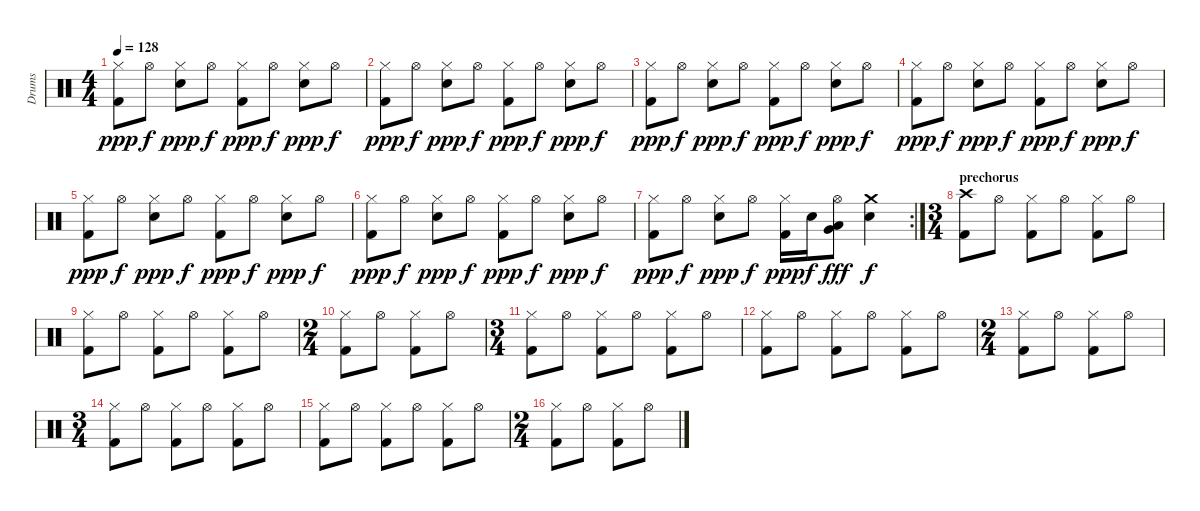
\track ("Drums" "Drums") {instrument percussion}
\staff {score}
\articulation defaults
\ts (4 4)
\tempo 128
\clef neutral
\ks c
("Hi-Hat (closed)" "Kick (hit) 2").8{dy ppp} "Hi-Hat (open)".8{dy f} ("Hi-Hat (closed)" "Snare (hit) 2").8{dy ppp} "Hi-Hat (open)".8{dy f} ("Hi-Hat (closed)" "Kick (hit) 2").8{dy ppp} "Hi-Hat (open)".8{dy f} ("Hi-Hat (closed)" "Snare (hit) 2").8{dy ppp} "Hi-Hat (open)".8{dy f} |
("Hi-Hat (closed)" "Kick (hit) 2").8{dy ppp} "Hi-Hat (open)".8{dy f} ("Hi-Hat (closed)" "Snare (hit) 2").8{dy ppp} "Hi-Hat (open)".8{dy f} ("Hi-Hat (closed)" "Kick (hit) 2").8{dy ppp} "Hi-Hat (open)".8{dy f} ("Hi-Hat (closed)" "Snare (hit) 2").8{dy ppp} "Hi-Hat (open)".8{dy f} |
("Hi-Hat (closed)" "Kick (hit) 2").8{dy ppp} "Hi-Hat (open)".8{dy f} ("Hi-Hat (closed)" "Snare (hit) 2").8{dy ppp} "Hi-Hat (open)".8{dy f} ("Hi-Hat (closed)" "Kick (hit) 2").8{dy ppp} "Hi-Hat (open)".8{dy f} ("Hi-Hat (closed)" "Snare (hit) 2").8{dy ppp} "Hi-Hat (open)".8{dy f} |
("Hi-Hat (closed)" "Kick (hit) 2").8{dy ppp} "Hi-Hat (open)".8{dy f} ("Hi-Hat (closed)" "Snare (hit) 2").8{dy ppp} "Hi-Hat (open)".8{dy f} ("Hi-Hat (closed)" "Kick (hit) 2").8{dy ppp} "Hi-Hat (open)".8{dy f} ("Hi-Hat (closed)" "Snare (hit) 2").8{dy ppp} "Hi-Hat (open)".8{dy f} |
("Hi-Hat (closed)" "Kick (hit) 2").8{dy ppp} "Hi-Hat (open)".8{dy f} ("Hi-Hat (closed)" "Snare (hit) 2").8{dy ppp} "Hi-Hat (open)".8{dy f} ("Hi-Hat (closed)" "Kick (hit) 2").8{dy ppp} "Hi-Hat (open)".8{dy f} ("Hi-Hat (closed)" "Snare (hit) 2").8{dy ppp} "Hi-Hat (open)".8{dy f} |
("Hi-Hat (closed)" "Kick (hit) 2").8{dy ppp} "Hi-Hat (open)".8{dy f} ("Hi-Hat (closed)" "Snare (hit) 2").8{dy ppp} "Hi-Hat (open)".8{dy f} ("Hi-Hat (closed)" "Kick (hit) 2").8{dy ppp} "Hi-Hat (open)".8{dy f} ("Hi-Hat (closed)" "Snare (hit) 2").8{dy ppp} "Hi-Hat (open)".8{dy f} |
\rc 2
("Hi-Hat (closed)" "Kick (hit) 2").8{dy ppp} "Hi-Hat (open)".8{dy f} ("Hi-Hat (closed)" "Snare (hit) 2").8{dy ppp} "Hi-Hat (open)".8{dy f} ("Hi-Hat (closed)" "Kick (hit) 2").16{dy ppp} "Snare (hit) 2".16{dy f} ("Hi-Hat (open)" "Low Tom (hit)" "Very Low Tom (hit)").8{dy fff} ("Crash medium (hit)" "Snare (hit) 2").4{dy f} |
\ts (3 4)
\section ("" "prechorus")
("Crash high (hit)" "Kick (hit) 2").8 "Hi-Hat (open)".8 ("Hi-Hat (closed)" "Kick (hit) 2").8 "Hi-Hat (open)".8 ("Hi-Hat (closed)" "Kick (hit) 2").8 "Hi-Hat (open)".8 |
("Hi-Hat (closed)" "Kick (hit) 2").8 "Hi-Hat (open)".8 ("Hi-Hat (closed)" "Kick (hit) 2").8 "Hi-Hat (open)".8 ("Hi-Hat (closed)" "Kick (hit) 2").8 "Hi-Hat (open)".8 |
\ts (2 4)
("Hi-Hat (closed)" "Kick (hit) 2").8 "Hi-Hat (open)".8 ("Hi-Hat (closed)" "Kick (hit) 2").8 "Hi-Hat (open)".8 |
\ts (3 4)
("Hi-Hat (closed)" "Kick (hit) 2").8 "Hi-Hat (open)".8 ("Hi-Hat (closed)" "Kick (hit) 2").8 "Hi-Hat (open)".8 ("Hi-Hat (closed)" "Kick (hit) 2").8 "Hi-Hat (open)".8 |
("Hi-Hat (closed)" "Kick (hit) 2").8 "Hi-Hat (open)".8 ("Hi-Hat (closed)" "Kick (hit) 2").8 "Hi-Hat (open)".8 ("Hi-Hat (closed)" "Kick (hit) 2").8 "Hi-Hat (open)".8 |
\ts (2 4)
("Hi-Hat (closed)" "Kick (hit) 2").8 "Hi-Hat (open)".8 ("Hi-Hat (closed)" "Kick (hit) 2").8 "Hi-Hat (open)".8 |
\ts (3 4)
("Hi-Hat (closed)" "Kick (hit) 2").8 "Hi-Hat (open)".8 ("Hi-Hat (closed)" "Kick (hit) 2").8 "Hi-Hat (open)".8 ("Hi-Hat (closed)" "Kick (hit) 2").8 "Hi-Hat (open)".8 |
("Hi-Hat (closed)" "Kick (hit) 2").8 "Hi-Hat (open)".8 ("Hi-Hat (closed)" "Kick (hit) 2").8 "Hi-Hat (open)".8 ("Hi-Hat (closed)" "Kick (hit) 2").8 "Hi-Hat (open)".8 |
\ts (2 4)
("Hi-Hat (closed)" "Kick (hit) 2").8 "Hi-Hat (open)".8 ("Hi-Hat (closed)" "Kick (hit) 2").8 "Hi-Hat (open)".8
